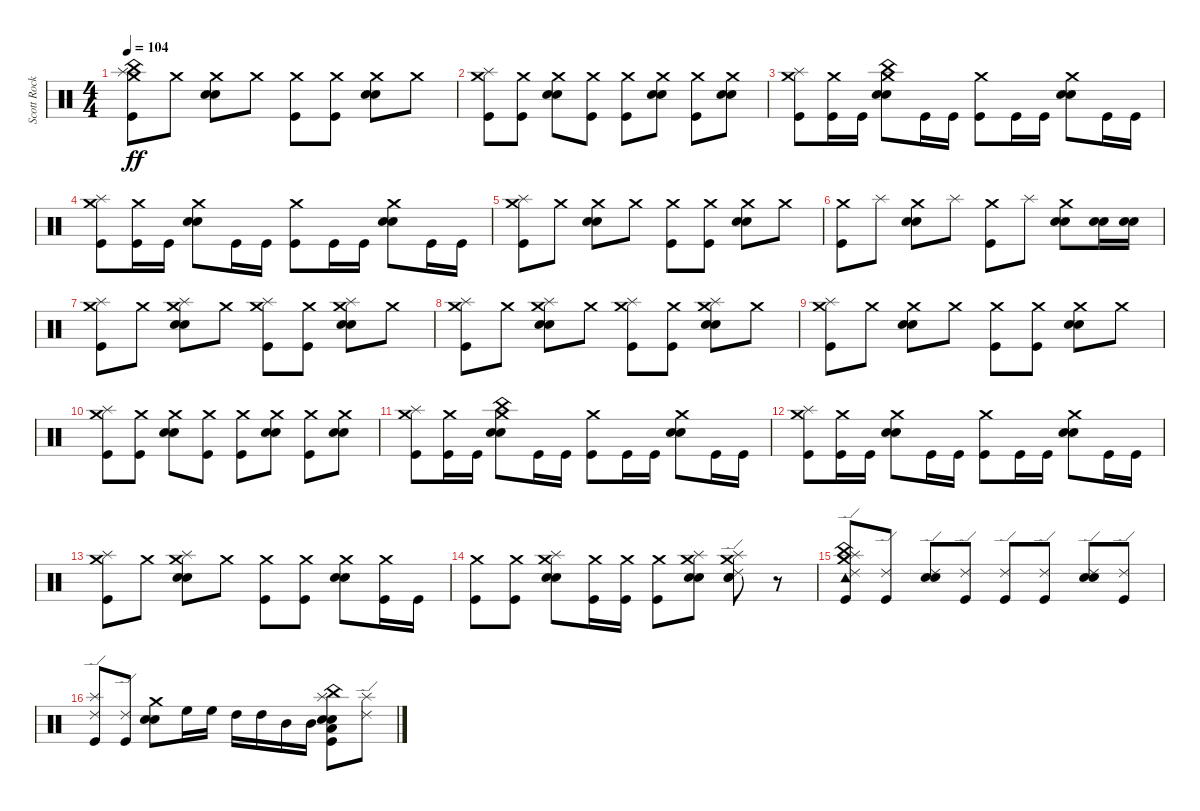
\track ("Scott Rockenfield" "Scott Rock") {instrument percussion}
\staff {score}
\articulation defaults
\ts (4 4)
\tempo 104
\clef neutral
\ks c
("Kick (hit)" "China (hit)" "Splash (hit)" "Crash medium (hit)").8{dy ff} "Crash medium (hit)".8 ("Snare (hit) 2" "Electric Snare (hit)" "Crash medium (hit)").8 "Crash medium (hit)".8 ("Kick (hit)" "Crash medium (hit)").8 ("Kick (hit)" "Crash medium (hit)").8 ("Snare (hit) 2" "Electric Snare (hit)" "Crash medium (hit)").8 "Crash medium (hit)".8 |
("Kick (hit)" "Splash (hit)" "Crash medium (hit)").8 ("Kick (hit)" "Crash medium (hit)").8 ("Snare (hit) 2" "Electric Snare (hit)" "Crash medium (hit)").8 ("Kick (hit)" "Crash medium (hit)").8 ("Kick (hit)" "Crash medium (hit)").8 ("Snare (hit) 2" "Electric Snare (hit)" "Crash medium (hit)").8 ("Kick (hit)" "Crash medium (hit)").8 ("Snare (hit) 2" "Electric Snare (hit)" "Crash medium (hit)").8 |
("Kick (hit)" "Splash (hit)" "Crash medium (hit)").8 ("Kick (hit)" "Crash medium (hit)").16 "Kick (hit)".16 ("Snare (hit) 2" "Electric Snare (hit)" "China (hit)" "Crash medium (hit)").8 "Kick (hit)".16 "Kick (hit)".16 ("Kick (hit)" "Crash medium (hit)").8 "Kick (hit)".16 "Kick (hit)".16 ("Snare (hit) 2" "Electric Snare (hit)" "Crash medium (hit)").8 "Kick (hit)".16 "Kick (hit)".16 |
("Kick (hit)" "Splash (hit)" "Crash medium (hit)").8 ("Kick (hit)" "Crash medium (hit)").16 "Kick (hit)".16 ("Snare (hit) 2" "Electric Snare (hit)" "Crash medium (hit)").8 "Kick (hit)".16 "Kick (hit)".16 ("Kick (hit)" "Crash medium (hit)").8 "Kick (hit)".16 "Kick (hit)".16 ("Snare (hit) 2" "Electric Snare (hit)" "Crash medium (hit)").8 "Kick (hit)".16 "Kick (hit)".16 |
("Kick (hit)" "Splash (hit)" "Crash medium (hit)").8 "Crash medium (hit)".8 ("Snare (hit) 2" "Electric Snare (hit)" "Crash medium (hit)").8 "Crash medium (hit)".8 ("Kick (hit)" "Crash medium (hit)").8 ("Kick (hit)" "Crash medium (hit)").8 ("Snare (hit) 2" "Electric Snare (hit)" "Crash medium (hit)").8 "Crash medium (hit)".8 |
("Kick (hit)" "Crash medium (hit)").8 "Splash (hit)".8 ("Snare (hit) 2" "Electric Snare (hit)" "Crash medium (hit)").8 "Splash (hit)".8 ("Kick (hit)" "Crash medium (hit)").8 "Splash (hit)".8 ("Snare (hit) 2" "Electric Snare (hit)" "Crash medium (hit)").8 ("Snare (hit) 2" "Electric Snare (hit)").16 ("Snare (hit) 2" "Electric Snare (hit)").16 |
("Kick (hit)" "Splash (hit)" "Crash medium (hit)").8 "Crash medium (hit)".8 ("Snare (hit) 2" "Electric Snare (hit)" "Splash (hit)" "Crash medium (hit)").8 "Crash medium (hit)".8 ("Kick (hit)" "Splash (hit)" "Crash medium (hit)").8 ("Kick (hit)" "Crash medium (hit)").8 ("Snare (hit) 2" "Electric Snare (hit)" "Splash (hit)" "Crash medium (hit)").8 "Crash medium (hit)".8 |
("Kick (hit)" "Splash (hit)" "Crash medium (hit)").8 "Crash medium (hit)".8 ("Snare (hit) 2" "Electric Snare (hit)" "Splash (hit)" "Crash medium (hit)").8 "Crash medium (hit)".8 ("Kick (hit)" "Splash (hit)" "Crash medium (hit)").8 ("Kick (hit)" "Crash medium (hit)").8 ("Snare (hit) 2" "Electric Snare (hit)" "Splash (hit)" "Crash medium (hit)").8 "Crash medium (hit)".8 |
("Kick (hit)" "Splash (hit)" "Crash medium (hit)").8 "Crash medium (hit)".8 ("Snare (hit) 2" "Electric Snare (hit)" "Crash medium (hit)").8 "Crash medium (hit)".8 ("Kick (hit)" "Crash medium (hit)").8 ("Kick (hit)" "Crash medium (hit)").8 ("Snare (hit) 2" "Electric Snare (hit)" "Crash medium (hit)").8 "Crash medium (hit)".8 |
("Kick (hit)" "Splash (hit)" "Crash medium (hit)").8 ("Kick (hit)" "Crash medium (hit)").8 ("Snare (hit) 2" "Electric Snare (hit)" "Crash medium (hit)").8 ("Kick (hit)" "Crash medium (hit)").8 ("Kick (hit)" "Crash medium (hit)").8 ("Snare (hit) 2" "Electric Snare (hit)" "Crash medium (hit)").8 ("Kick (hit)" "Crash medium (hit)").8 ("Snare (hit) 2" "Electric Snare (hit)" "Crash medium (hit)").8 |
("Kick (hit)" "Splash (hit)" "Crash medium (hit)").8 ("Kick (hit)" "Crash medium (hit)").16 "Kick (hit)".16 ("Snare (hit) 2" "Electric Snare (hit)" "China (hit)" "Crash medium (hit)").8 "Kick (hit)".16 "Kick (hit)".16 ("Kick (hit)" "Crash medium (hit)").8 "Kick (hit)".16 "Kick (hit)".16 ("Snare (hit) 2" "Electric Snare (hit)" "Crash medium (hit)").8 "Kick (hit)".16 "Kick (hit)".16 |
("Kick (hit)" "Splash (hit)" "Crash medium (hit)").8 ("Kick (hit)" "Crash medium (hit)").16 "Kick (hit)".16 ("Snare (hit) 2" "Electric Snare (hit)" "Crash medium (hit)").8 "Kick (hit)".16 "Kick (hit)".16 ("Kick (hit)" "Crash medium (hit)").8 "Kick (hit)".16 "Kick (hit)".16 ("Snare (hit) 2" "Electric Snare (hit)" "Crash medium (hit)").8 "Kick (hit)".16 "Kick (hit)".16 |
("Kick (hit)" "Splash (hit)" "Crash medium (hit)").8 "Crash medium (hit)".8 ("Snare (hit) 2" "Electric Snare (hit)" "Splash (hit)" "Crash medium (hit)").8 "Crash medium (hit)".8 ("Kick (hit)" "Crash medium (hit)").8 ("Kick (hit)" "Crash medium (hit)").8 ("Snare (hit) 2" "Electric Snare (hit)" "Crash medium (hit)").8 ("Kick (hit)" "Crash medium (hit)").16 "Kick (hit)".16 |
("Kick (hit)" "Crash medium (hit)").8 ("Kick (hit)" "Crash medium (hit)").8 ("Snare (hit) 2" "Electric Snare (hit)" "Splash (hit)" "Crash medium (hit)").8 ("Kick (hit)" "Crash medium (hit)").16 ("Kick (hit)" "Crash medium (hit)").16 ("Kick (hit)" "Crash medium (hit)").8 ("Snare (hit) 2" "Electric Snare (hit)" "Splash (hit)" "Crash medium (hit)").8 ("Snare (hit) 2" "Electric Snare (hit)" "Splash (hit)" "Crash medium (hit)" "Ride (edge) 2").8 r.8 |
("Kick (hit)" "China (hit)" "Tambourine (hit)" "Splash (hit)" "Crash medium (hit)" "Ride (edge) 2").8 ("Kick (hit)" "Ride (edge) 2").8 ("Snare (hit) 2" "Electric Snare (hit)" "Ride (edge) 2").8 ("Kick (hit)" "Ride (edge) 2").8 ("Kick (hit)" "Ride (edge) 2").8 ("Kick (hit)" "Ride (edge) 2").8 ("Snare (hit) 2" "Electric Snare (hit)" "Ride (edge) 2").8 ("Kick (hit)" "Ride (edge) 2").8 |
("Kick (hit)" "Splash (hit)" "Ride (edge) 2").8 ("Kick (hit)" "Ride (edge) 2").8 ("Snare (hit) 2" "Electric Snare (hit)" "Crash medium (hit)").8 "High Floor Tom (hit)".16 "High Floor Tom (hit)".16 "High Tom (hit)".16 "High Tom (hit)".16 "Mid Tom (hit)".16 "Mid Tom (hit)".16 ("Kick (hit)" "Snare (hit) 2" "Electric Snare (hit)" "Low Tom (hit)" "China (hit)" "Splash (hit)").8 ("Splash (hit)" "Ride (edge) 2").8
